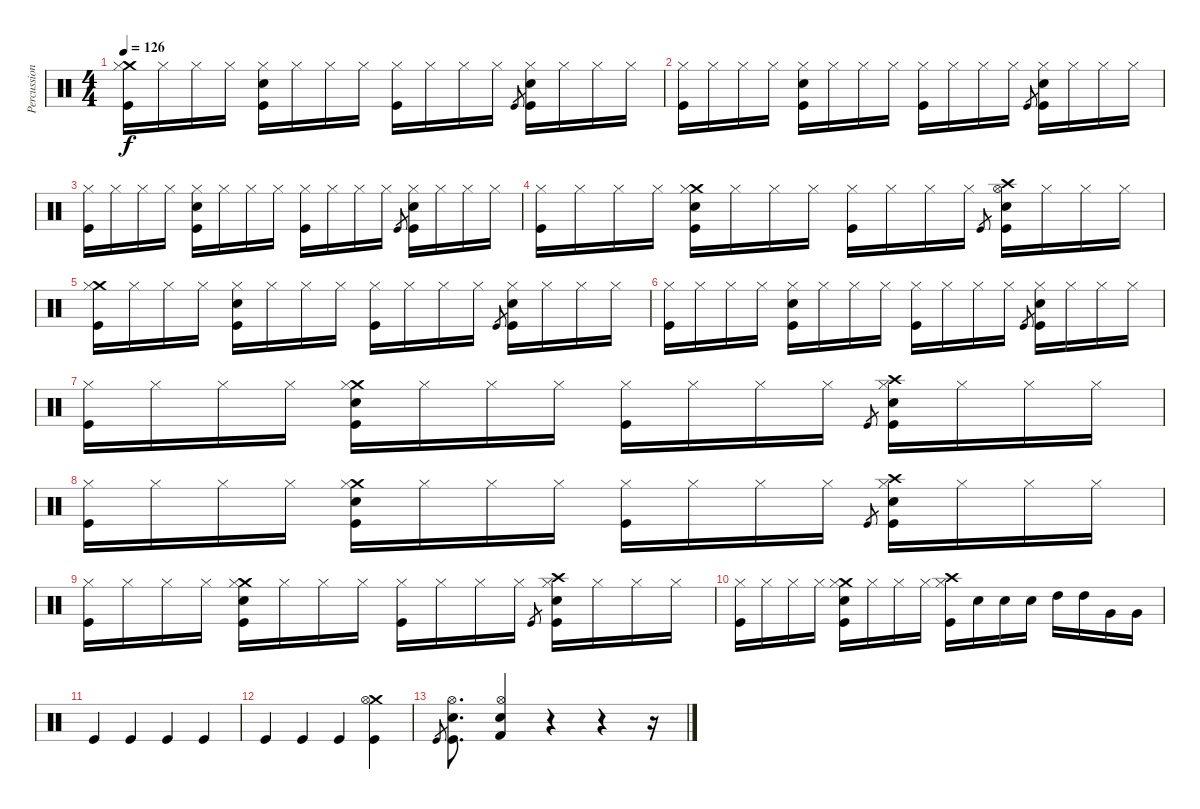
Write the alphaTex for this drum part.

\track ("Percussion" "Percussion") {instrument percussion}
\staff {score}
\articulation defaults
\ts (4 4)
\tempo 126
\clef neutral
\ks c
("Crash medium (hit)" "Hi-Hat (closed)" "Kick (hit)").16{dy f} "Hi-Hat (closed)".16 "Hi-Hat (closed)".16 "Hi-Hat (closed)".16 ("Hi-Hat (closed)" "Snare (hit) 2" "Kick (hit)").16 "Hi-Hat (closed)".16 "Hi-Hat (closed)".16 "Hi-Hat (closed)".16 ("Hi-Hat (closed)" "Kick (hit)").16 "Hi-Hat (closed)".16 "Hi-Hat (closed)".16 "Hi-Hat (closed)".16 "Kick (hit)".8{gr} ("Hi-Hat (closed)" "Snare (hit) 2" "Kick (hit)").16 "Hi-Hat (closed)".16 "Hi-Hat (closed)".16 "Hi-Hat (closed)".16 |
("Hi-Hat (closed)" "Kick (hit)").16 "Hi-Hat (closed)".16 "Hi-Hat (closed)".16 "Hi-Hat (closed)".16 ("Hi-Hat (closed)" "Snare (hit) 2" "Kick (hit)").16 "Hi-Hat (closed)".16 "Hi-Hat (closed)".16 "Hi-Hat (closed)".16 ("Hi-Hat (closed)" "Kick (hit)").16 "Hi-Hat (closed)".16 "Hi-Hat (closed)".16 "Hi-Hat (closed)".16 "Kick (hit)".8{gr} ("Hi-Hat (closed)" "Snare (hit) 2" "Kick (hit)").16 "Hi-Hat (closed)".16 "Hi-Hat (closed)".16 "Hi-Hat (closed)".16 |
("Hi-Hat (closed)" "Kick (hit)").16 "Hi-Hat (closed)".16 "Hi-Hat (closed)".16 "Hi-Hat (closed)".16 ("Hi-Hat (closed)" "Snare (hit) 2" "Kick (hit)").16 "Hi-Hat (closed)".16 "Hi-Hat (closed)".16 "Hi-Hat (closed)".16 ("Hi-Hat (closed)" "Kick (hit)").16 "Hi-Hat (closed)".16 "Hi-Hat (closed)".16 "Hi-Hat (closed)".16 "Kick (hit)".8{gr} ("Hi-Hat (closed)" "Snare (hit) 2" "Kick (hit)").16 "Hi-Hat (closed)".16 "Hi-Hat (closed)".16 "Hi-Hat (closed)".16 |
("Hi-Hat (closed)" "Kick (hit)").16 "Hi-Hat (closed)".16 "Hi-Hat (closed)".16 "Hi-Hat (closed)".16 ("Crash medium (hit)" "Hi-Hat (closed)" "Snare (hit) 2" "Kick (hit)").16 "Hi-Hat (closed)".16 "Hi-Hat (closed)".16 "Hi-Hat (closed)".16 ("Hi-Hat (closed)" "Kick (hit)").16 "Hi-Hat (closed)".16 "Hi-Hat (closed)".16 "Hi-Hat (closed)".16 "Kick (hit)".8{gr} ("Crash high (hit)" "Hi-Hat (open)" "Snare (hit) 2" "Kick (hit)").16 "Hi-Hat (closed)".16 "Hi-Hat (closed)".16 "Hi-Hat (closed)".16 |
("Crash medium (hit)" "Hi-Hat (closed)" "Kick (hit)").16 "Hi-Hat (closed)".16 "Hi-Hat (closed)".16 "Hi-Hat (closed)".16 ("Hi-Hat (closed)" "Snare (hit) 2" "Kick (hit)").16 "Hi-Hat (closed)".16 "Hi-Hat (closed)".16 "Hi-Hat (closed)".16 ("Hi-Hat (closed)" "Kick (hit)").16 "Hi-Hat (closed)".16 "Hi-Hat (closed)".16 "Hi-Hat (closed)".16 "Kick (hit)".8{gr} ("Hi-Hat (closed)" "Snare (hit) 2" "Kick (hit)").16 "Hi-Hat (closed)".16 "Hi-Hat (closed)".16 "Hi-Hat (closed)".16 |
("Hi-Hat (closed)" "Kick (hit)").16 "Hi-Hat (closed)".16 "Hi-Hat (closed)".16 "Hi-Hat (closed)".16 ("Hi-Hat (closed)" "Snare (hit) 2" "Kick (hit)").16 "Hi-Hat (closed)".16 "Hi-Hat (closed)".16 "Hi-Hat (closed)".16 ("Hi-Hat (closed)" "Kick (hit)").16 "Hi-Hat (closed)".16 "Hi-Hat (closed)".16 "Hi-Hat (closed)".16 "Kick (hit)".8{gr} ("Hi-Hat (closed)" "Snare (hit) 2" "Kick (hit)").16 "Hi-Hat (closed)".16 "Hi-Hat (closed)".16 "Hi-Hat (closed)".16 |
("Hi-Hat (closed)" "Kick (hit)").16 "Hi-Hat (closed)".16 "Hi-Hat (closed)".16 "Hi-Hat (closed)".16 ("Crash medium (hit)" "Hi-Hat (closed)" "Snare (hit) 2" "Kick (hit)").16 "Hi-Hat (closed)".16 "Hi-Hat (closed)".16 "Hi-Hat (closed)".16 ("Hi-Hat (closed)" "Kick (hit)").16 "Hi-Hat (closed)".16 "Hi-Hat (closed)".16 "Hi-Hat (closed)".16 "Kick (hit)".8{gr} ("Crash high (hit)" "Hi-Hat (closed)" "Snare (hit) 2" "Kick (hit)").16 "Hi-Hat (closed)".16 "Hi-Hat (closed)".16 "Hi-Hat (closed)".16 |
("Hi-Hat (closed)" "Kick (hit)").16 "Hi-Hat (closed)".16 "Hi-Hat (closed)".16 "Hi-Hat (closed)".16 ("Crash medium (hit)" "Hi-Hat (closed)" "Snare (hit) 2" "Kick (hit)").16 "Hi-Hat (closed)".16 "Hi-Hat (closed)".16 "Hi-Hat (closed)".16 ("Hi-Hat (closed)" "Kick (hit)").16 "Hi-Hat (closed)".16 "Hi-Hat (closed)".16 "Hi-Hat (closed)".16 "Kick (hit)".8{gr} ("Crash high (hit)" "Hi-Hat (closed)" "Snare (hit) 2" "Kick (hit)").16 "Hi-Hat (closed)".16 "Hi-Hat (closed)".16 "Hi-Hat (closed)".16 |
("Hi-Hat (closed)" "Kick (hit)").16 "Hi-Hat (closed)".16 "Hi-Hat (closed)".16 "Hi-Hat (closed)".16 ("Crash medium (hit)" "Hi-Hat (closed)" "Snare (hit) 2" "Kick (hit)").16 "Hi-Hat (closed)".16 "Hi-Hat (closed)".16 "Hi-Hat (closed)".16 ("Hi-Hat (closed)" "Kick (hit)").16 "Hi-Hat (closed)".16 "Hi-Hat (closed)".16 "Hi-Hat (closed)".16 "Kick (hit)".8{gr} ("Crash high (hit)" "Hi-Hat (closed)" "Snare (hit) 2" "Kick (hit)").16 "Hi-Hat (closed)".16 "Hi-Hat (closed)".16 "Hi-Hat (closed)".16 |
("Hi-Hat (closed)" "Kick (hit)").16 "Hi-Hat (closed)".16 "Hi-Hat (closed)".16 "Hi-Hat (closed)".16 ("Crash medium (hit)" "Hi-Hat (closed)" "Snare (hit) 2" "Kick (hit)").16 "Hi-Hat (closed)".16 "Hi-Hat (closed)".16 "Hi-Hat (closed)".16 ("Crash high (hit)" "Hi-Hat (closed)" "Kick (hit)").16 "Snare (hit) 2".16 "Snare (hit) 2".16 "Snare (hit) 2".16 "High Tom (hit)".16 "High Tom (hit)".16 "Very Low Tom (hit)".16 "Very Low Tom (hit)".16 |
"Kick (hit)".4 "Kick (hit)".4 "Kick (hit)".4 "Kick (hit)".4 |
"Kick (hit)".4 "Kick (hit)".4 "Kick (hit)".4 ("Crash medium (hit)" "Hi-Hat (open)" "Kick (hit)").4 |
"Kick (hit)".8{gr} ("Hi-Hat (open)" "Snare (hit) 2" "Kick (hit)").8{d} ("Hi-Hat (open)" "Snare (hit) 2" "Kick (hit) 2").4 r.4 r.4 r.16
